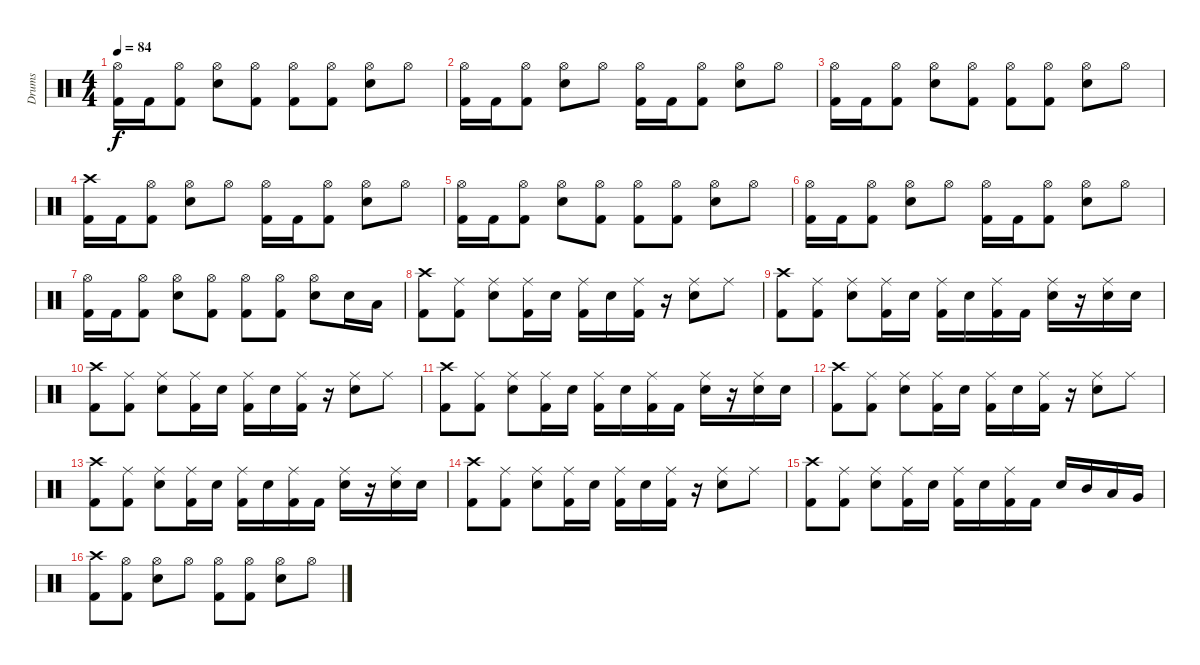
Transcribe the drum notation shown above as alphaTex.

\track ("Drums" "Drums") {instrument percussion}
\staff {score}
\articulation defaults
\ts (4 4)
\tempo 84
\clef neutral
\ks c
("Hi-Hat (open)" "Kick (hit) 2").16{dy f} "Kick (hit) 2".16 ("Hi-Hat (open)" "Kick (hit) 2").8 ("Hi-Hat (open)" "Snare (hit) 2").8 ("Hi-Hat (open)" "Kick (hit) 2").8 ("Hi-Hat (open)" "Kick (hit) 2").8 ("Hi-Hat (open)" "Kick (hit) 2").8 ("Hi-Hat (open)" "Snare (hit) 2").8 "Hi-Hat (open)".8 |
("Hi-Hat (open)" "Kick (hit) 2").16 "Kick (hit) 2".16 ("Hi-Hat (open)" "Kick (hit) 2").8 ("Hi-Hat (open)" "Snare (hit) 2").8 "Hi-Hat (open)".8 ("Hi-Hat (open)" "Kick (hit) 2").16 "Kick (hit) 2".16 ("Hi-Hat (open)" "Kick (hit) 2").8 ("Hi-Hat (open)" "Snare (hit) 2").8 "Hi-Hat (open)".8 |
("Hi-Hat (open)" "Kick (hit) 2").16 "Kick (hit) 2".16 ("Hi-Hat (open)" "Kick (hit) 2").8 ("Hi-Hat (open)" "Snare (hit) 2").8 ("Hi-Hat (open)" "Kick (hit) 2").8 ("Hi-Hat (open)" "Kick (hit) 2").8 ("Hi-Hat (open)" "Kick (hit) 2").8 ("Hi-Hat (open)" "Snare (hit) 2").8 "Hi-Hat (open)".8 |
("Crash high (hit)" "Kick (hit) 2").16 "Kick (hit) 2".16 ("Hi-Hat (open)" "Kick (hit) 2").8 ("Hi-Hat (open)" "Snare (hit) 2").8 "Hi-Hat (open)".8 ("Hi-Hat (open)" "Kick (hit) 2").16 "Kick (hit) 2".16 ("Hi-Hat (open)" "Kick (hit) 2").8 ("Hi-Hat (open)" "Snare (hit) 2").8 "Hi-Hat (open)".8 |
("Hi-Hat (open)" "Kick (hit) 2").16 "Kick (hit) 2".16 ("Hi-Hat (open)" "Kick (hit) 2").8 ("Hi-Hat (open)" "Snare (hit) 2").8 ("Hi-Hat (open)" "Kick (hit) 2").8 ("Hi-Hat (open)" "Kick (hit) 2").8 ("Hi-Hat (open)" "Kick (hit) 2").8 ("Hi-Hat (open)" "Snare (hit) 2").8 "Hi-Hat (open)".8 |
("Hi-Hat (open)" "Kick (hit) 2").16 "Kick (hit) 2".16 ("Hi-Hat (open)" "Kick (hit) 2").8 ("Hi-Hat (open)" "Snare (hit) 2").8 "Hi-Hat (open)".8 ("Hi-Hat (open)" "Kick (hit) 2").16 "Kick (hit) 2".16 ("Hi-Hat (open)" "Kick (hit) 2").8 ("Hi-Hat (open)" "Snare (hit) 2").8 "Hi-Hat (open)".8 |
("Hi-Hat (open)" "Kick (hit) 2").16 "Kick (hit) 2".16 ("Hi-Hat (open)" "Kick (hit) 2").8 ("Hi-Hat (open)" "Snare (hit) 2").8 ("Hi-Hat (open)" "Kick (hit) 2").8 ("Hi-Hat (open)" "Kick (hit) 2").8 ("Hi-Hat (open)" "Kick (hit) 2").8 ("Hi-Hat (open)" "Snare (hit) 2").8 "Snare (hit) 2".16 "Low Tom (hit)".16 |
("Crash high (hit)" "Kick (hit) 2").8 ("Ride (middle)" "Kick (hit) 2").8 ("Ride (middle)" "Snare (hit) 2").8 ("Ride (middle)" "Kick (hit) 2").16 "Snare (hit) 2".16 ("Ride (middle)" "Kick (hit) 2").16 "Snare (hit) 2".16 ("Ride (middle)" "Kick (hit) 2").16 r.16 ("Ride (middle)" "Snare (hit) 2").8 "Ride (middle)".8 |
("Crash high (hit)" "Kick (hit) 2").8 ("Ride (middle)" "Kick (hit) 2").8 ("Ride (middle)" "Snare (hit) 2").8 ("Ride (middle)" "Kick (hit) 2").16 "Snare (hit) 2".16 ("Ride (middle)" "Kick (hit) 2").16 "Snare (hit) 2".16 ("Ride (middle)" "Kick (hit) 2").16 "Kick (hit) 2".16 ("Ride (middle)" "Snare (hit) 2").16 r.16 ("Ride (middle)" "Snare (hit) 2").16 "Snare (hit) 2".16 |
("Crash high (hit)" "Kick (hit) 2").8 ("Ride (middle)" "Kick (hit) 2").8 ("Ride (middle)" "Snare (hit) 2").8 ("Ride (middle)" "Kick (hit) 2").16 "Snare (hit) 2".16 ("Ride (middle)" "Kick (hit) 2").16 "Snare (hit) 2".16 ("Ride (middle)" "Kick (hit) 2").16 r.16 ("Ride (middle)" "Snare (hit) 2").8 "Ride (middle)".8 |
("Crash high (hit)" "Kick (hit) 2").8 ("Ride (middle)" "Kick (hit) 2").8 ("Ride (middle)" "Snare (hit) 2").8 ("Ride (middle)" "Kick (hit) 2").16 "Snare (hit) 2".16 ("Ride (middle)" "Kick (hit) 2").16 "Snare (hit) 2".16 ("Ride (middle)" "Kick (hit) 2").16 "Kick (hit) 2".16 ("Ride (middle)" "Snare (hit) 2").16 r.16 ("Ride (middle)" "Snare (hit) 2").16 "Snare (hit) 2".16 |
("Crash high (hit)" "Kick (hit) 2").8 ("Ride (middle)" "Kick (hit) 2").8 ("Ride (middle)" "Snare (hit) 2").8 ("Ride (middle)" "Kick (hit) 2").16 "Snare (hit) 2".16 ("Ride (middle)" "Kick (hit) 2").16 "Snare (hit) 2".16 ("Ride (middle)" "Kick (hit) 2").16 r.16 ("Ride (middle)" "Snare (hit) 2").8 "Ride (middle)".8 |
("Crash high (hit)" "Kick (hit) 2").8 ("Ride (middle)" "Kick (hit) 2").8 ("Ride (middle)" "Snare (hit) 2").8 ("Ride (middle)" "Kick (hit) 2").16 "Snare (hit) 2".16 ("Ride (middle)" "Kick (hit) 2").16 "Snare (hit) 2".16 ("Ride (middle)" "Kick (hit) 2").16 "Kick (hit) 2".16 ("Ride (middle)" "Snare (hit) 2").16 r.16 ("Ride (middle)" "Snare (hit) 2").16 "Snare (hit) 2".16 |
("Crash high (hit)" "Kick (hit) 2").8 ("Ride (middle)" "Kick (hit) 2").8 ("Ride (middle)" "Snare (hit) 2").8 ("Ride (middle)" "Kick (hit) 2").16 "Snare (hit) 2".16 ("Ride (middle)" "Kick (hit) 2").16 "Snare (hit) 2".16 ("Ride (middle)" "Kick (hit) 2").16 r.16 ("Ride (middle)" "Snare (hit) 2").8 "Ride (middle)".8 |
("Crash high (hit)" "Kick (hit) 2").8 ("Ride (middle)" "Kick (hit) 2").8 ("Ride (middle)" "Snare (hit) 2").8 ("Ride (middle)" "Kick (hit) 2").16 "Snare (hit) 2".16 ("Ride (middle)" "Kick (hit) 2").16 "Snare (hit) 2".16 ("Ride (middle)" "Kick (hit) 2").16 "Kick (hit) 2".16 "Snare (hit) 2".16 "Mid Tom (hit)".16 "Low Tom (hit)".16 "Very Low Tom (hit)".16 |
("Crash high (hit)" "Kick (hit) 2").8 ("Hi-Hat (open)" "Kick (hit) 2").8 ("Hi-Hat (open)" "Snare (hit) 2").8 "Hi-Hat (open)".8 ("Hi-Hat (open)" "Kick (hit) 2").8 ("Hi-Hat (open)" "Kick (hit) 2").8 ("Hi-Hat (open)" "Snare (hit) 2").8 "Hi-Hat (open)".8
